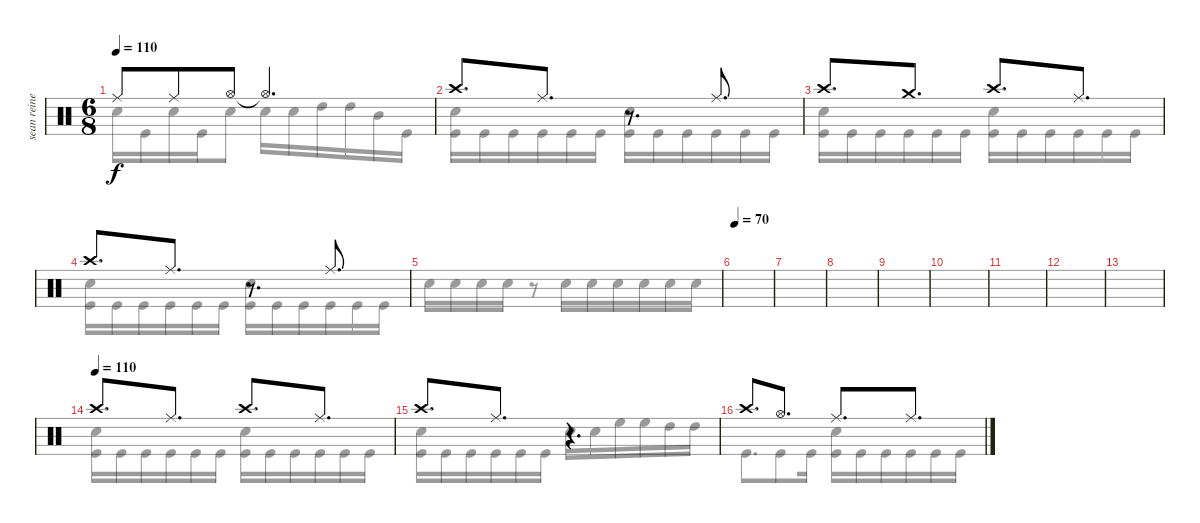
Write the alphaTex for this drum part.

\track ("sean reinert" "sean reine") {instrument percussion}
\staff {score}
\articulation defaults
\voice
\ts (6 8)
\tempo 110
\clef neutral
\ks c "Ride (middle)".8{dy f} "Ride (middle)".8 "Hi-Hat (open)".8 "Hi-Hat (open)"{t}.4{d}
|
"Crash high (hit)".8{d} "Ride (middle)".8{d} r.8{d} "Ride (middle)".8{d} |
"Crash high (hit)".8{d} "Crash medium (hit)".8{d} "Crash high (hit)".8{d} "Ride (middle)".8{d} |
"Crash high (hit)".8{d} "Ride (middle)".8{d} r.8{d} "Ride (middle)".8{d} |
|
\tempo 70
|
|
|
|
|
|
|
|
\tempo (110)
"Crash high (hit)".8{d} "Ride (middle)".8{d} "Crash high (hit)".8{d} "Ride (middle)".8{d} |
"Crash high (hit)".8{d} "Ride (middle)".8{d} r.4{d} |
"Crash high (hit)".8{d} "Hi-Hat (open)".8{d} "Ride (middle)".8{d} "Ride (middle)".8{d}
\voice
\clef neutral
\ottava regular
\simile none
\ks c "Snare (hit) 2".16{dy f} "Kick (hit)".16 "Snare (hit) 2".16 "Kick (hit)".16 "Snare (hit) 2".8 "Snare (hit) 2".16 "Snare (hit) 2".16 "High Tom (hit)".16 "High Tom (hit)".16 "Mid Tom (hit)".16 "Kick (hit)".16
|
("Snare (hit) 2" "Kick (hit)").16 "Kick (hit)".16 "Kick (hit)".16 "Kick (hit)".16 "Kick (hit)".16 "Kick (hit)".16 ("Snare (hit) 2" "Kick (hit)").16 "Kick (hit)".16 "Kick (hit)".16 "Kick (hit)".16 "Kick (hit)".16 "Kick (hit)".16 |
("Snare (hit) 2" "Kick (hit)").16 "Kick (hit)".16 "Kick (hit)".16 "Kick (hit)".16 "Kick (hit)".16 "Kick (hit)".16 ("Snare (hit) 2" "Kick (hit)").16 "Kick (hit)".16 "Kick (hit)".16 "Kick (hit)".16 "Kick (hit)".16 "Kick (hit)".16 |
("Snare (hit) 2" "Kick (hit)").16 "Kick (hit)".16 "Kick (hit)".16 "Kick (hit)".16 "Kick (hit)".16 "Kick (hit)".16 ("Snare (hit) 2" "Kick (hit)").16 "Kick (hit)".16 "Kick (hit)".16 "Kick (hit)".16 "Kick (hit)".16 "Kick (hit)".16 |
"Snare (hit) 2".16 "Snare (hit) 2".16 "Snare (hit) 2".16 "Snare (hit) 2".16 r.8 "Snare (hit) 2".16 "Snare (hit) 2".16 "Snare (hit) 2".16 "Snare (hit) 2".16 "Snare (hit) 2".16 "Snare (hit) 2".16 |
|
|
|
|
|
|
|
|
("Snare (hit) 2" "Kick (hit)").16 "Kick (hit)".16 "Kick (hit)".16 "Kick (hit)".16 "Kick (hit)".16 "Kick (hit)".16 ("Snare (hit) 2" "Kick (hit)").16 "Kick (hit)".16 "Kick (hit)".16 "Kick (hit)".16 "Kick (hit)".16 "Kick (hit)".16 |
("Snare (hit) 2" "Kick (hit)").16 "Kick (hit)".16 "Kick (hit)".16 "Kick (hit)".16 "Kick (hit)".16 "Kick (hit)".16 "Snare (hit) 2".16 "Snare (hit) 2".16 "High Floor Tom (hit)".16 "High Floor Tom (hit)".16 "High Tom (hit)".16 "High Tom (hit)".16 |
"Kick (hit)".8{d} "Kick (hit)".8 "Kick (hit)".16 ("Snare (hit) 2" "Kick (hit)").16 "Kick (hit)".16 "Kick (hit)".16 "Kick (hit)".16 "Kick (hit)".16 "Kick (hit)".16
